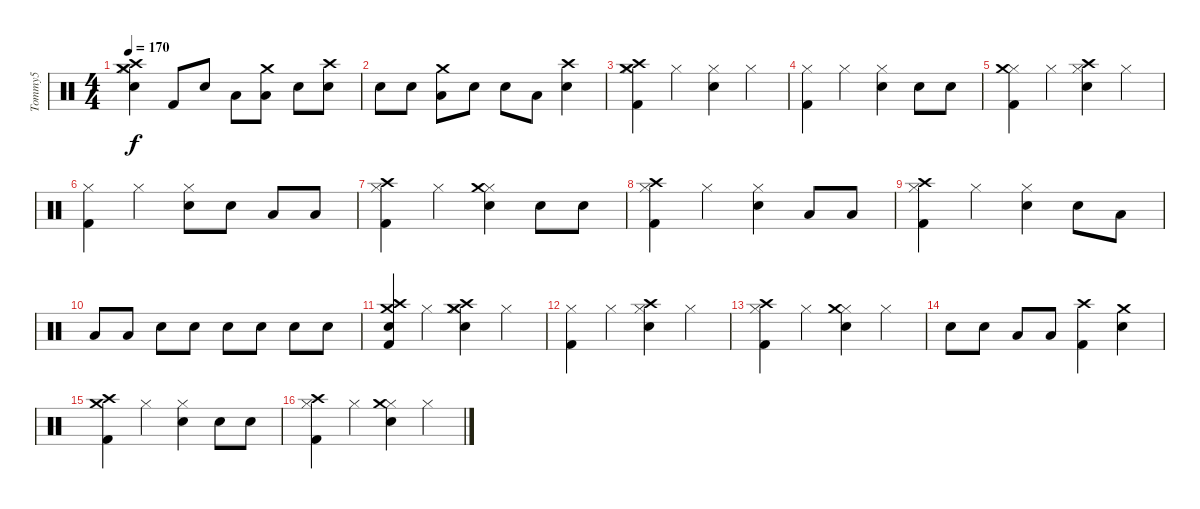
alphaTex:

\track ("Tommy5" "Tommy5") {instrument percussion}
\staff {score}
\articulation defaults
\ts (4 4)
\tempo 170
\clef neutral
\ks c
("Hi-Hat (closed)" "Electric Snare (hit)" "Crash high (hit)" "Crash medium (hit)").4{dy f} "Kick (hit) 2".8 "Electric Snare (hit)".8 "Low Tom (hit)".8 ("Low Tom (hit)" "Crash medium (hit)").8 "Electric Snare (hit)".8 ("Electric Snare (hit)" "Crash high (hit)").8 |
"Electric Snare (hit)".8 "Electric Snare (hit)".8 ("Low Tom (hit)" "Crash medium (hit)").8 "Snare (hit) 2".8 "Snare (hit) 2".8 "Low Tom (hit)".8 ("Electric Snare (hit)" "Crash high (hit)").4 |
("Hi-Hat (closed)" "Kick (hit) 2" "Crash high (hit)" "Crash medium (hit)").4 "Hi-Hat (closed)".4 ("Hi-Hat (closed)" "Electric Snare (hit)").4 "Hi-Hat (closed)".4 |
("Hi-Hat (closed)" "Kick (hit) 2").4 "Hi-Hat (closed)".4 ("Hi-Hat (closed)" "Electric Snare (hit)").4 "Electric Snare (hit)".8 "Electric Snare (hit)".8 |
("Hi-Hat (closed)" "Kick (hit) 2" "Crash medium (hit)").4 "Hi-Hat (closed)".4 ("Hi-Hat (closed)" "Electric Snare (hit)" "Crash high (hit)").4 "Hi-Hat (closed)".4 |
("Hi-Hat (closed)" "Kick (hit) 2").4 "Hi-Hat (closed)".4 ("Hi-Hat (closed)" "Electric Snare (hit)").8 "Electric Snare (hit)".8 "Low Tom (hit)".8 "Low Tom (hit)".8 |
("Hi-Hat (closed)" "Kick (hit) 2" "Crash high (hit)").4 "Hi-Hat (closed)".4 ("Hi-Hat (closed)" "Electric Snare (hit)" "Crash medium (hit)").4 "Electric Snare (hit)".8 "Electric Snare (hit)".8 |
("Hi-Hat (closed)" "Kick (hit) 2" "Crash high (hit)").4 "Hi-Hat (closed)".4 ("Hi-Hat (closed)" "Electric Snare (hit)").4 "Low Tom (hit)".8 "Low Tom (hit)".8 |
("Hi-Hat (closed)" "Kick (hit) 2" "Crash high (hit)").4 "Hi-Hat (closed)".4 ("Hi-Hat (closed)" "Electric Snare (hit)").4 "Electric Snare (hit)".8 "Low Tom (hit)".8 |
"Low Tom (hit)".8 "Low Tom (hit)".8 "Electric Snare (hit)".8 "Electric Snare (hit)".8 "Snare (hit) 2".8 "Snare (hit) 2".8 "Electric Snare (hit)".8 "Electric Snare (hit)".8 |
("Electric Snare (hit)" "Kick (hit) 2" "Crash high (hit)" "Crash medium (hit)").4 "Hi-Hat (closed)".4 ("Hi-Hat (closed)" "Electric Snare (hit)" "Crash high (hit)" "Crash medium (hit)").4 "Hi-Hat (closed)".4 |
("Hi-Hat (closed)" "Kick (hit) 2").4 "Hi-Hat (closed)".4 ("Hi-Hat (closed)" "Electric Snare (hit)" "Crash high (hit)").4 "Hi-Hat (closed)".4 |
("Hi-Hat (closed)" "Kick (hit) 2" "Crash high (hit)").4 "Hi-Hat (closed)".4 ("Hi-Hat (closed)" "Electric Snare (hit)" "Crash medium (hit)").4 "Hi-Hat (closed)".4 |
"Electric Snare (hit)".8 "Electric Snare (hit)".8 "Low Tom (hit)".8 "Low Tom (hit)".8 ("Kick (hit) 2" "Crash high (hit)").4 ("Electric Snare (hit)" "Crash medium (hit)").4 |
("Kick (hit) 2" "Crash high (hit)" "Crash medium (hit)").4 "Hi-Hat (closed)".4 ("Hi-Hat (closed)" "Electric Snare (hit)").4 "Electric Snare (hit)".8 "Electric Snare (hit)".8 |
("Hi-Hat (closed)" "Kick (hit) 2" "Crash high (hit)").4 "Hi-Hat (closed)".4 ("Hi-Hat (closed)" "Electric Snare (hit)" "Crash medium (hit)").4 "Hi-Hat (closed)".4
